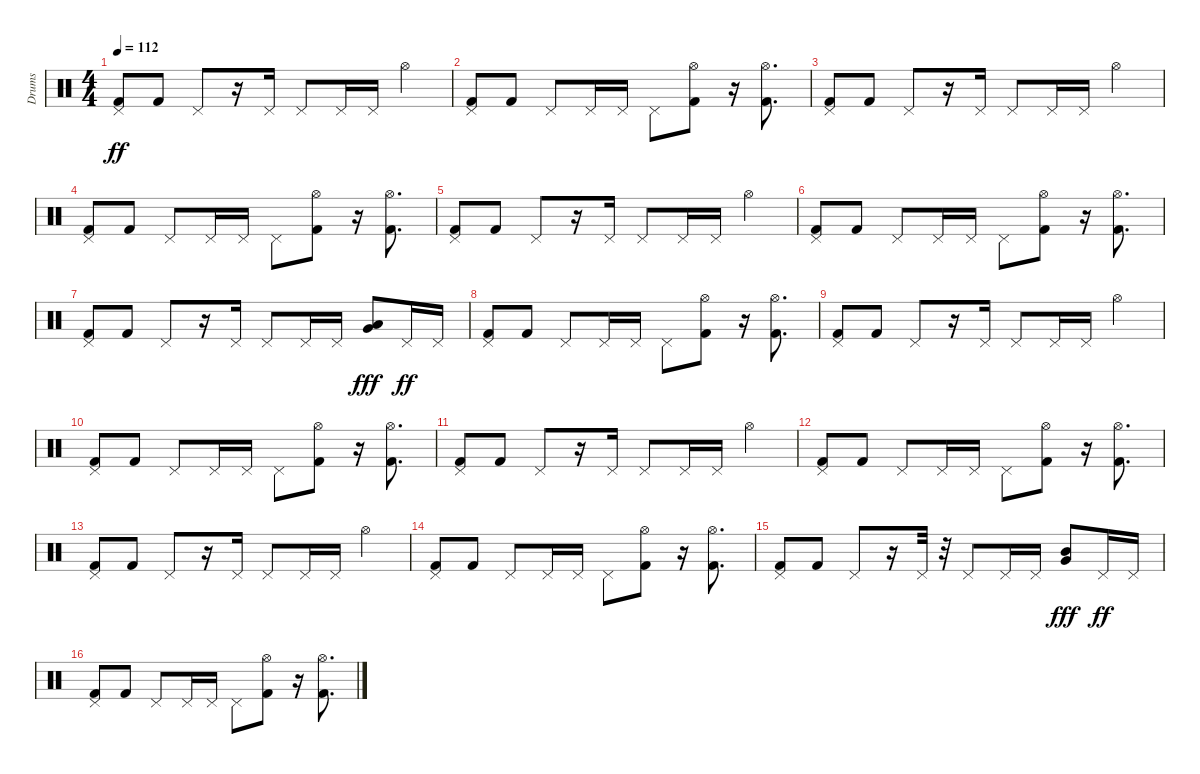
\track ("Drums" "Drums") {instrument percussion}
\staff {score}
\articulation defaults
\ts (4 4)
\tempo 112
\clef neutral
\ks c
("Kick (hit) 2" "Pedal Hi-Hat (hit)").8{dy ff} "Kick (hit) 2".8 "Pedal Hi-Hat (hit)".8 r.16 "Pedal Hi-Hat (hit)".16 "Pedal Hi-Hat (hit)".8 "Pedal Hi-Hat (hit)".16 "Pedal Hi-Hat (hit)".16 "Hi-Hat (open)".4 |
("Kick (hit) 2" "Pedal Hi-Hat (hit)").8 "Kick (hit) 2".8 "Pedal Hi-Hat (hit)".8 "Pedal Hi-Hat (hit)".16 "Pedal Hi-Hat (hit)".16 "Pedal Hi-Hat (hit)".8 ("Kick (hit) 2" "Hi-Hat (open)").8 r.16 ("Kick (hit) 2" "Hi-Hat (open)").8{d} |
("Kick (hit) 2" "Pedal Hi-Hat (hit)").8 "Kick (hit) 2".8 "Pedal Hi-Hat (hit)".8 r.16 "Pedal Hi-Hat (hit)".16 "Pedal Hi-Hat (hit)".8 "Pedal Hi-Hat (hit)".16 "Pedal Hi-Hat (hit)".16 "Hi-Hat (open)".4 |
("Kick (hit) 2" "Pedal Hi-Hat (hit)").8 "Kick (hit) 2".8 "Pedal Hi-Hat (hit)".8 "Pedal Hi-Hat (hit)".16 "Pedal Hi-Hat (hit)".16 "Pedal Hi-Hat (hit)".8 ("Kick (hit) 2" "Hi-Hat (open)").8 r.16 ("Kick (hit) 2" "Hi-Hat (open)").8{d} |
("Kick (hit) 2" "Pedal Hi-Hat (hit)").8 "Kick (hit) 2".8 "Pedal Hi-Hat (hit)".8 r.16 "Pedal Hi-Hat (hit)".16 "Pedal Hi-Hat (hit)".8 "Pedal Hi-Hat (hit)".16 "Pedal Hi-Hat (hit)".16 "Hi-Hat (open)".4 |
("Kick (hit) 2" "Pedal Hi-Hat (hit)").8 "Kick (hit) 2".8 "Pedal Hi-Hat (hit)".8 "Pedal Hi-Hat (hit)".16 "Pedal Hi-Hat (hit)".16 "Pedal Hi-Hat (hit)".8 ("Kick (hit) 2" "Hi-Hat (open)").8 r.16 ("Kick (hit) 2" "Hi-Hat (open)").8{d} |
("Kick (hit) 2" "Pedal Hi-Hat (hit)").8 "Kick (hit) 2".8 "Pedal Hi-Hat (hit)".8 r.16 "Pedal Hi-Hat (hit)".16 "Pedal Hi-Hat (hit)".8 "Pedal Hi-Hat (hit)".16 "Pedal Hi-Hat (hit)".16 ("Very Low Tom (hit)" "Low Floor Tom (hit)").8{dy fff} "Pedal Hi-Hat (hit)".16{dy ff} "Pedal Hi-Hat (hit)".16 |
("Kick (hit) 2" "Pedal Hi-Hat (hit)").8 "Kick (hit) 2".8 "Pedal Hi-Hat (hit)".8 "Pedal Hi-Hat (hit)".16 "Pedal Hi-Hat (hit)".16 "Pedal Hi-Hat (hit)".8 ("Kick (hit) 2" "Hi-Hat (open)").8 r.16 ("Kick (hit) 2" "Hi-Hat (open)").8{d} |
("Kick (hit) 2" "Pedal Hi-Hat (hit)").8 "Kick (hit) 2".8 "Pedal Hi-Hat (hit)".8 r.16 "Pedal Hi-Hat (hit)".16 "Pedal Hi-Hat (hit)".8 "Pedal Hi-Hat (hit)".16 "Pedal Hi-Hat (hit)".16 "Hi-Hat (open)".4 |
("Kick (hit) 2" "Pedal Hi-Hat (hit)").8 "Kick (hit) 2".8 "Pedal Hi-Hat (hit)".8 "Pedal Hi-Hat (hit)".16 "Pedal Hi-Hat (hit)".16 "Pedal Hi-Hat (hit)".8 ("Kick (hit) 2" "Hi-Hat (open)").8 r.16 ("Kick (hit) 2" "Hi-Hat (open)").8{d} |
("Kick (hit) 2" "Pedal Hi-Hat (hit)").8 "Kick (hit) 2".8 "Pedal Hi-Hat (hit)".8 r.16 "Pedal Hi-Hat (hit)".16 "Pedal Hi-Hat (hit)".8 "Pedal Hi-Hat (hit)".16 "Pedal Hi-Hat (hit)".16 "Hi-Hat (open)".4 |
("Kick (hit) 2" "Pedal Hi-Hat (hit)").8 "Kick (hit) 2".8 "Pedal Hi-Hat (hit)".8 "Pedal Hi-Hat (hit)".16 "Pedal Hi-Hat (hit)".16 "Pedal Hi-Hat (hit)".8 ("Kick (hit) 2" "Hi-Hat (open)").8 r.16 ("Kick (hit) 2" "Hi-Hat (open)").8{d} |
("Kick (hit) 2" "Pedal Hi-Hat (hit)").8 "Kick (hit) 2".8 "Pedal Hi-Hat (hit)".8 r.16 "Pedal Hi-Hat (hit)".16 "Pedal Hi-Hat (hit)".8 "Pedal Hi-Hat (hit)".16 "Pedal Hi-Hat (hit)".16 "Hi-Hat (open)".4 |
("Kick (hit) 2" "Pedal Hi-Hat (hit)").8 "Kick (hit) 2".8 "Pedal Hi-Hat (hit)".8 "Pedal Hi-Hat (hit)".16 "Pedal Hi-Hat (hit)".16 "Pedal Hi-Hat (hit)".8 ("Kick (hit) 2" "Hi-Hat (open)").8 r.16 ("Kick (hit) 2" "Hi-Hat (open)").8{d} |
("Kick (hit) 2" "Pedal Hi-Hat (hit)").8 "Kick (hit) 2".8 "Pedal Hi-Hat (hit)".8 r.16 "Pedal Hi-Hat (hit)".32 r.32 "Pedal Hi-Hat (hit)".8 "Pedal Hi-Hat (hit)".16 "Pedal Hi-Hat (hit)".16 ("Very Low Tom (hit)" "Mid Tom (hit)").8{dy fff} "Pedal Hi-Hat (hit)".16{dy ff} "Pedal Hi-Hat (hit)".16 |
("Kick (hit) 2" "Pedal Hi-Hat (hit)").8 "Kick (hit) 2".8 "Pedal Hi-Hat (hit)".8 "Pedal Hi-Hat (hit)".16 "Pedal Hi-Hat (hit)".16 "Pedal Hi-Hat (hit)".8 ("Kick (hit) 2" "Hi-Hat (open)").8 r.16 ("Kick (hit) 2" "Hi-Hat (open)").8{d}
